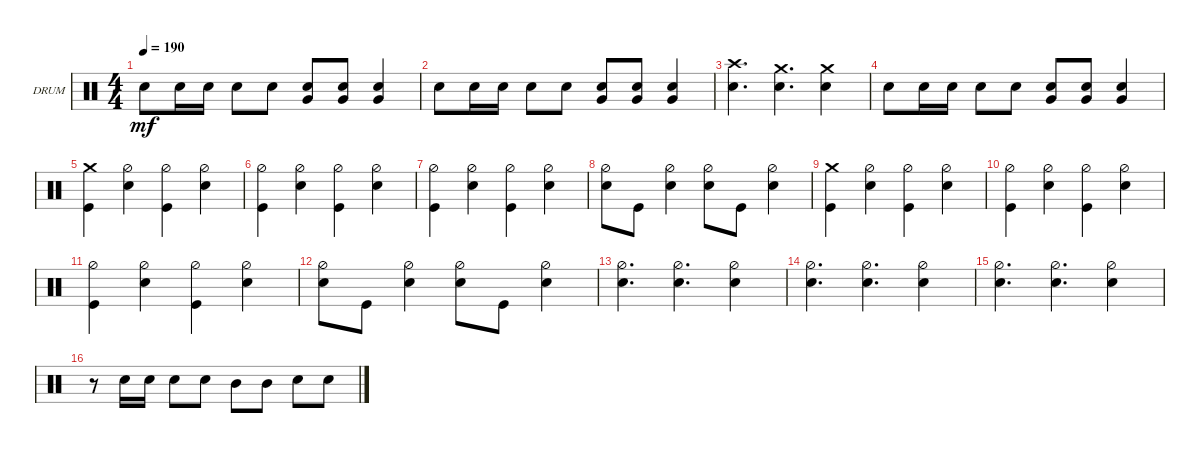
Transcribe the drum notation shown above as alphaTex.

\defaultSystemsLayout 4
\bracketExtendMode groupsimilarinstruments
\firstSystemTrackNameOrientation horizontal
\otherSystemsTrackNameOrientation horizontal
\track ("Drums" "DRUM") {instrument percussion}
\staff {score}
\articulation defaults
\ts (4 4)
\tempo 190
\clef neutral
\ks c "Snare (hit) 2".8{dy mf} "Snare (hit) 2".16 "Snare (hit) 2".16 "Snare (hit) 2".8 "Snare (hit) 2".8
("Snare (hit) 2" "Very Low Tom (hit)").8 ("Snare (hit) 2" "Very Low Tom (hit)").8 ("Snare (hit) 2" "Very Low Tom (hit)").4 |
"Snare (hit) 2".8 "Snare (hit) 2".16 "Snare (hit) 2".16 "Snare (hit) 2".8 "Snare (hit) 2".8 ("Snare (hit) 2" "Very Low Tom (hit)").8 ("Snare (hit) 2" "Very Low Tom (hit)").8 ("Snare (hit) 2" "Very Low Tom (hit)").4 |
("Crash high (hit)" "Snare (hit) 2").4{d} ("Snare (hit) 2" "Crash medium (hit)").4{d} ("Crash medium (hit)" "Snare (hit) 2").4 |
"Snare (hit) 2".8 "Snare (hit) 2".16 "Snare (hit) 2".16 "Snare (hit) 2".8 "Snare (hit) 2".8 ("Snare (hit) 2" "Very Low Tom (hit)").8 ("Snare (hit) 2" "Very Low Tom (hit)").8 ("Snare (hit) 2" "Very Low Tom (hit)").4 |
("Kick (hit)" "Crash medium (hit)").4 ("Snare (hit) 2" "Hi-Hat (half)").4 ("Kick (hit)" "Hi-Hat (half)").4 ("Snare (hit) 2" "Hi-Hat (half)").4 |
("Kick (hit)" "Hi-Hat (half)").4 ("Snare (hit) 2" "Hi-Hat (half)").4 ("Kick (hit)" "Hi-Hat (half)").4 ("Snare (hit) 2" "Hi-Hat (half)").4 |
("Kick (hit)" "Hi-Hat (half)").4 ("Snare (hit) 2" "Hi-Hat (half)").4 ("Kick (hit)" "Hi-Hat (half)").4 ("Snare (hit) 2" "Hi-Hat (half)").4 |
("Snare (hit) 2" "Hi-Hat (half)").8 "Kick (hit)".8 ("Snare (hit) 2" "Hi-Hat (half)").4 ("Snare (hit) 2" "Hi-Hat (half)").8 "Kick (hit)".8 ("Snare (hit) 2" "Hi-Hat (half)").4 |
("Kick (hit)" "Crash medium (hit)").4 ("Snare (hit) 2" "Hi-Hat (half)").4 ("Kick (hit)" "Hi-Hat (half)").4 ("Snare (hit) 2" "Hi-Hat (half)").4 |
("Kick (hit)" "Hi-Hat (half)").4 ("Snare (hit) 2" "Hi-Hat (half)").4 ("Kick (hit)" "Hi-Hat (half)").4 ("Snare (hit) 2" "Hi-Hat (half)").4 |
("Kick (hit)" "Hi-Hat (half)").4 ("Snare (hit) 2" "Hi-Hat (half)").4 ("Kick (hit)" "Hi-Hat (half)").4 ("Snare (hit) 2" "Hi-Hat (half)").4 |
("Snare (hit) 2" "Hi-Hat (half)").8 "Kick (hit)".8 ("Snare (hit) 2" "Hi-Hat (half)").4 ("Snare (hit) 2" "Hi-Hat (half)").8 "Kick (hit)".8 ("Snare (hit) 2" "Hi-Hat (half)").4 |
("Snare (hit) 2" "Hi-Hat (half)").4{d} ("Snare (hit) 2" "Hi-Hat (half)").4{d} ("Snare (hit) 2" "Hi-Hat (half)").4 |
("Snare (hit) 2" "Hi-Hat (half)").4{d} ("Snare (hit) 2" "Hi-Hat (half)").4{d} ("Snare (hit) 2" "Hi-Hat (half)").4 |
("Snare (hit) 2" "Hi-Hat (half)").4{d} ("Snare (hit) 2" "Hi-Hat (half)").4{d} ("Snare (hit) 2" "Hi-Hat (half)").4 |
r.8 "Snare (hit) 2".16 "Snare (hit) 2".16 "Snare (hit) 2".8 "Snare (hit) 2".8 "Mid Tom (hit)".8 "Mid Tom (hit)".8 "Snare (hit) 2".8 "Snare (hit) 2".8
